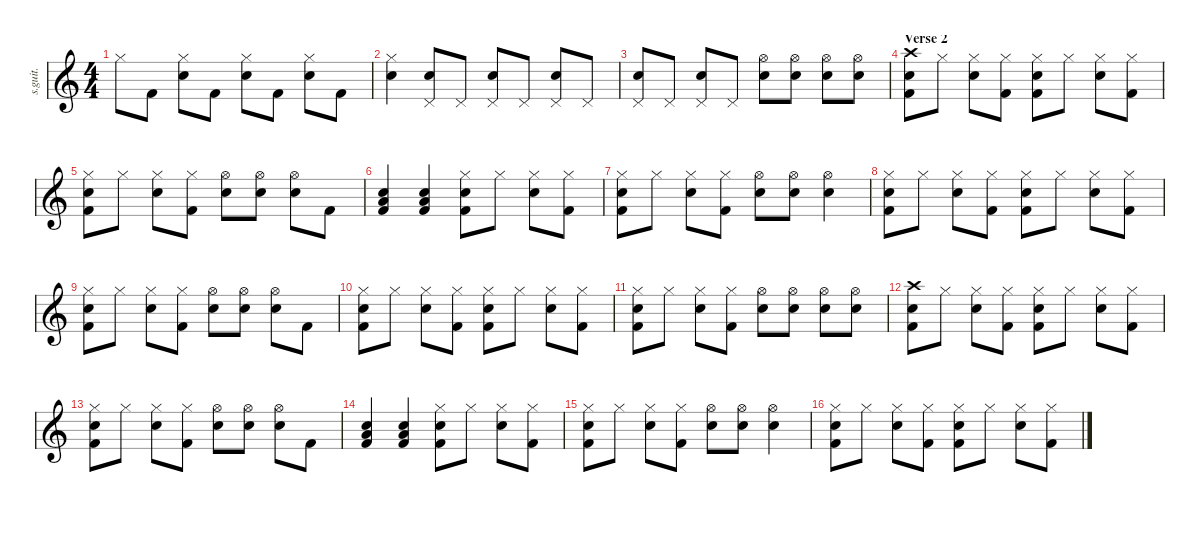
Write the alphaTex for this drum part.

\defaultSystemsLayout 4
\hideDynamics
\bracketExtendMode nobrackets
\track ("Earth" "s.guit.") {instrument percussion}
\staff {score}
\articulation defaults
\ts (4 4)
\tempo (130 hide)
\clef g2
\ks c "Hi-Hat (closed)".8{lyrics (0 "") lyrics (1 "") lyrics (2 "") lyrics (3 "") lyrics (4 "") dy f} "Kick (hit) 2".8{lyrics (0 "") lyrics (1 "") lyrics (2 "") lyrics (3 "") lyrics (4 "")}
("Hi-Hat (closed)" "Snare (hit) 2").8{lyrics (0 "") lyrics (1 "") lyrics (2 "") lyrics (3 "") lyrics (4 "")} "Kick (hit) 2".8{lyrics (0 "") lyrics (1 "") lyrics (2 "") lyrics (3 "") lyrics (4 "")} ("Hi-Hat (closed)" "Snare (hit) 2").8{lyrics (0 "") lyrics (1 "") lyrics (2 "") lyrics (3 "") lyrics (4 "")} "Kick (hit) 2".8{lyrics (0 "") lyrics (1 "") lyrics (2 "") lyrics (3 "") lyrics (4 "")} ("Hi-Hat (closed)" "Snare (hit) 2").8{lyrics (0 "") lyrics (1 "") lyrics (2 "") lyrics (3 "") lyrics (4 "")} "Kick (hit) 2".8{lyrics (0 "") lyrics (1 "") lyrics (2 "") lyrics (3 "") lyrics (4 "")} |
("Hi-Hat (closed)" "Snare (hit) 2").4{lyrics (0 "") lyrics (1 "") lyrics (2 "") lyrics (3 "") lyrics (4 "")} ("Snare (hit) 2" "Pedal Hi-Hat (hit)").8{lyrics (0 "") lyrics (1 "") lyrics (2 "") lyrics (3 "") lyrics (4 "")} "Pedal Hi-Hat (hit)".8{lyrics (0 "") lyrics (1 "") lyrics (2 "") lyrics (3 "") lyrics (4 "")} ("Snare (hit) 2" "Pedal Hi-Hat (hit)").8{lyrics (0 "") lyrics (1 "") lyrics (2 "") lyrics (3 "") lyrics (4 "")} "Pedal Hi-Hat (hit)".8{lyrics (0 "") lyrics (1 "") lyrics (2 "") lyrics (3 "") lyrics (4 "")} ("Snare (hit) 2" "Pedal Hi-Hat (hit)").8{lyrics (0 "") lyrics (1 "") lyrics (2 "") lyrics (3 "") lyrics (4 "")} "Pedal Hi-Hat (hit)".8{lyrics (0 "") lyrics (1 "") lyrics (2 "") lyrics (3 "") lyrics (4 "")} |
("Snare (hit) 2" "Pedal Hi-Hat (hit)").8{lyrics (0 "") lyrics (1 "") lyrics (2 "") lyrics (3 "") lyrics (4 "")} "Pedal Hi-Hat (hit)".8{lyrics (0 "") lyrics (1 "") lyrics (2 "") lyrics (3 "") lyrics (4 "")} ("Snare (hit) 2" "Pedal Hi-Hat (hit)").8{lyrics (0 "") lyrics (1 "") lyrics (2 "") lyrics (3 "") lyrics (4 "")} "Pedal Hi-Hat (hit)".8{lyrics (0 "") lyrics (1 "") lyrics (2 "") lyrics (3 "") lyrics (4 "")} ("Hi-Hat (open)" "Snare (hit) 2").8{lyrics (0 "") lyrics (1 "") lyrics (2 "") lyrics (3 "") lyrics (4 "")} ("Hi-Hat (open)" "Snare (hit) 2").8{lyrics (0 "") lyrics (1 "") lyrics (2 "") lyrics (3 "") lyrics (4 "")} ("Hi-Hat (open)" "Snare (hit) 2").8{lyrics (0 "") lyrics (1 "") lyrics (2 "") lyrics (3 "") lyrics (4 "")} ("Hi-Hat (open)" "Snare (hit) 2").8{lyrics (0 "") lyrics (1 "") lyrics (2 "") lyrics (3 "") lyrics (4 "")} |
\section ("" "Verse 2")
("Crash high (hit)" "Snare (hit) 2" "Kick (hit) 2").8{lyrics (0 "") lyrics (1 "") lyrics (2 "") lyrics (3 "") lyrics (4 "")} "Hi-Hat (closed)".8{lyrics (0 "") lyrics (1 "") lyrics (2 "") lyrics (3 "") lyrics (4 "")} ("Hi-Hat (closed)" "Snare (hit) 2").8{lyrics (0 "") lyrics (1 "") lyrics (2 "") lyrics (3 "") lyrics (4 "")} ("Hi-Hat (closed)" "Kick (hit) 2").8{lyrics (0 "") lyrics (1 "") lyrics (2 "") lyrics (3 "") lyrics (4 "")} ("Hi-Hat (closed)" "Snare (hit) 2" "Kick (hit) 2").8{lyrics (0 "") lyrics (1 "") lyrics (2 "") lyrics (3 "") lyrics (4 "")} "Hi-Hat (closed)".8{lyrics (0 "") lyrics (1 "") lyrics (2 "") lyrics (3 "") lyrics (4 "")} ("Hi-Hat (closed)" "Snare (hit) 2").8{lyrics (0 "") lyrics (1 "") lyrics (2 "") lyrics (3 "") lyrics (4 "")} ("Hi-Hat (closed)" "Kick (hit) 2").8{lyrics (0 "") lyrics (1 "") lyrics (2 "") lyrics (3 "") lyrics (4 "")} |
("Hi-Hat (closed)" "Snare (hit) 2" "Kick (hit) 2").8{lyrics (0 "") lyrics (1 "") lyrics (2 "") lyrics (3 "") lyrics (4 "")} "Hi-Hat (closed)".8{lyrics (0 "") lyrics (1 "") lyrics (2 "") lyrics (3 "") lyrics (4 "")} ("Hi-Hat (closed)" "Snare (hit) 2").8{lyrics (0 "") lyrics (1 "") lyrics (2 "") lyrics (3 "") lyrics (4 "")} ("Hi-Hat (closed)" "Kick (hit) 2").8{lyrics (0 "") lyrics (1 "") lyrics (2 "") lyrics (3 "") lyrics (4 "")} ("Hi-Hat (open)" "Snare (hit) 2").8{lyrics (0 "") lyrics (1 "") lyrics (2 "") lyrics (3 "") lyrics (4 "")} ("Hi-Hat (open)" "Snare (hit) 2").8{lyrics (0 "") lyrics (1 "") lyrics (2 "") lyrics (3 "") lyrics (4 "")} ("Hi-Hat (open)" "Snare (hit) 2").8{lyrics (0 "") lyrics (1 "") lyrics (2 "") lyrics (3 "") lyrics (4 "")} "Kick (hit) 2".8{lyrics (0 "") lyrics (1 "") lyrics (2 "") lyrics (3 "") lyrics (4 "")} |
("Snare (hit) 2" "Low Tom (hit)" "Kick (hit) 2").4{lyrics (0 "") lyrics (1 "") lyrics (2 "") lyrics (3 "") lyrics (4 "")} ("Snare (hit) 2" "Low Tom (hit)" "Kick (hit) 2").4{lyrics (0 "") lyrics (1 "") lyrics (2 "") lyrics (3 "") lyrics (4 "")} ("Hi-Hat (closed)" "Snare (hit) 2" "Kick (hit) 2").8{lyrics (0 "") lyrics (1 "") lyrics (2 "") lyrics (3 "") lyrics (4 "")} "Hi-Hat (closed)".8{lyrics (0 "") lyrics (1 "") lyrics (2 "") lyrics (3 "") lyrics (4 "")} ("Hi-Hat (closed)" "Snare (hit) 2").8{lyrics (0 "") lyrics (1 "") lyrics (2 "") lyrics (3 "") lyrics (4 "")} ("Hi-Hat (closed)" "Kick (hit) 2").8{lyrics (0 "") lyrics (1 "") lyrics (2 "") lyrics (3 "") lyrics (4 "")} |
("Hi-Hat (closed)" "Snare (hit) 2" "Kick (hit) 2").8{lyrics (0 "") lyrics (1 "") lyrics (2 "") lyrics (3 "") lyrics (4 "")} "Hi-Hat (closed)".8{lyrics (0 "") lyrics (1 "") lyrics (2 "") lyrics (3 "") lyrics (4 "")} ("Hi-Hat (closed)" "Snare (hit) 2").8{lyrics (0 "") lyrics (1 "") lyrics (2 "") lyrics (3 "") lyrics (4 "")} ("Hi-Hat (closed)" "Kick (hit) 2").8{lyrics (0 "") lyrics (1 "") lyrics (2 "") lyrics (3 "") lyrics (4 "")} ("Hi-Hat (open)" "Snare (hit) 2").8{lyrics (0 "") lyrics (1 "") lyrics (2 "") lyrics (3 "") lyrics (4 "")} ("Hi-Hat (open)" "Snare (hit) 2").8{lyrics (0 "") lyrics (1 "") lyrics (2 "") lyrics (3 "") lyrics (4 "")} ("Hi-Hat (open)" "Snare (hit) 2").4{lyrics (0 "") lyrics (1 "") lyrics (2 "") lyrics (3 "") lyrics (4 "")} |
("Hi-Hat (closed)" "Snare (hit) 2" "Kick (hit) 2").8{lyrics (0 "") lyrics (1 "") lyrics (2 "") lyrics (3 "") lyrics (4 "")} "Hi-Hat (closed)".8{lyrics (0 "") lyrics (1 "") lyrics (2 "") lyrics (3 "") lyrics (4 "")} ("Hi-Hat (closed)" "Snare (hit) 2").8{lyrics (0 "") lyrics (1 "") lyrics (2 "") lyrics (3 "") lyrics (4 "")} ("Hi-Hat (closed)" "Kick (hit) 2").8{lyrics (0 "") lyrics (1 "") lyrics (2 "") lyrics (3 "") lyrics (4 "")} ("Hi-Hat (closed)" "Snare (hit) 2" "Kick (hit) 2").8{lyrics (0 "") lyrics (1 "") lyrics (2 "") lyrics (3 "") lyrics (4 "")} "Hi-Hat (closed)".8{lyrics (0 "") lyrics (1 "") lyrics (2 "") lyrics (3 "") lyrics (4 "")} ("Hi-Hat (closed)" "Snare (hit) 2").8{lyrics (0 "") lyrics (1 "") lyrics (2 "") lyrics (3 "") lyrics (4 "")} ("Hi-Hat (closed)" "Kick (hit) 2").8{lyrics (0 "") lyrics (1 "") lyrics (2 "") lyrics (3 "") lyrics (4 "")} |
("Hi-Hat (closed)" "Snare (hit) 2" "Kick (hit) 2").8{lyrics (0 "") lyrics (1 "") lyrics (2 "") lyrics (3 "") lyrics (4 "")} "Hi-Hat (closed)".8{lyrics (0 "") lyrics (1 "") lyrics (2 "") lyrics (3 "") lyrics (4 "")} ("Hi-Hat (closed)" "Snare (hit) 2").8{lyrics (0 "") lyrics (1 "") lyrics (2 "") lyrics (3 "") lyrics (4 "")} ("Hi-Hat (closed)" "Kick (hit) 2").8{lyrics (0 "") lyrics (1 "") lyrics (2 "") lyrics (3 "") lyrics (4 "")} ("Hi-Hat (open)" "Snare (hit) 2").8{lyrics (0 "") lyrics (1 "") lyrics (2 "") lyrics (3 "") lyrics (4 "")} ("Hi-Hat (open)" "Snare (hit) 2").8{lyrics (0 "") lyrics (1 "") lyrics (2 "") lyrics (3 "") lyrics (4 "")} ("Hi-Hat (open)" "Snare (hit) 2").8{lyrics (0 "") lyrics (1 "") lyrics (2 "") lyrics (3 "") lyrics (4 "")} "Kick (hit) 2".8{lyrics (0 "") lyrics (1 "") lyrics (2 "") lyrics (3 "") lyrics (4 "")} |
("Hi-Hat (closed)" "Snare (hit) 2" "Kick (hit) 2").8{lyrics (0 "") lyrics (1 "") lyrics (2 "") lyrics (3 "") lyrics (4 "")} "Hi-Hat (closed)".8{lyrics (0 "") lyrics (1 "") lyrics (2 "") lyrics (3 "") lyrics (4 "")} ("Hi-Hat (closed)" "Snare (hit) 2").8{lyrics (0 "") lyrics (1 "") lyrics (2 "") lyrics (3 "") lyrics (4 "")} ("Hi-Hat (closed)" "Kick (hit) 2").8{lyrics (0 "") lyrics (1 "") lyrics (2 "") lyrics (3 "") lyrics (4 "")} ("Hi-Hat (closed)" "Snare (hit) 2" "Kick (hit) 2").8{lyrics (0 "") lyrics (1 "") lyrics (2 "") lyrics (3 "") lyrics (4 "")} "Hi-Hat (closed)".8{lyrics (0 "") lyrics (1 "") lyrics (2 "") lyrics (3 "") lyrics (4 "")} ("Hi-Hat (closed)" "Snare (hit) 2").8{lyrics (0 "") lyrics (1 "") lyrics (2 "") lyrics (3 "") lyrics (4 "")} ("Hi-Hat (closed)" "Kick (hit) 2").8{lyrics (0 "") lyrics (1 "") lyrics (2 "") lyrics (3 "") lyrics (4 "")} |
("Hi-Hat (closed)" "Snare (hit) 2" "Kick (hit) 2").8{lyrics (0 "") lyrics (1 "") lyrics (2 "") lyrics (3 "") lyrics (4 "")} "Hi-Hat (closed)".8{lyrics (0 "") lyrics (1 "") lyrics (2 "") lyrics (3 "") lyrics (4 "")} ("Hi-Hat (closed)" "Snare (hit) 2").8{lyrics (0 "") lyrics (1 "") lyrics (2 "") lyrics (3 "") lyrics (4 "")} ("Hi-Hat (closed)" "Kick (hit) 2").8{lyrics (0 "") lyrics (1 "") lyrics (2 "") lyrics (3 "") lyrics (4 "")} ("Hi-Hat (open)" "Snare (hit) 2").8{lyrics (0 "") lyrics (1 "") lyrics (2 "") lyrics (3 "") lyrics (4 "")} ("Hi-Hat (open)" "Snare (hit) 2").8{lyrics (0 "") lyrics (1 "") lyrics (2 "") lyrics (3 "") lyrics (4 "")} ("Hi-Hat (open)" "Snare (hit) 2").8{lyrics (0 "") lyrics (1 "") lyrics (2 "") lyrics (3 "") lyrics (4 "")} ("Hi-Hat (open)" "Snare (hit) 2").8{lyrics (0 "") lyrics (1 "") lyrics (2 "") lyrics (3 "") lyrics (4 "")} |
("Crash high (hit)" "Snare (hit) 2" "Kick (hit) 2").8{lyrics (0 "") lyrics (1 "") lyrics (2 "") lyrics (3 "") lyrics (4 "")} "Hi-Hat (closed)".8{lyrics (0 "") lyrics (1 "") lyrics (2 "") lyrics (3 "") lyrics (4 "")} ("Hi-Hat (closed)" "Snare (hit) 2").8{lyrics (0 "") lyrics (1 "") lyrics (2 "") lyrics (3 "") lyrics (4 "")} ("Hi-Hat (closed)" "Kick (hit) 2").8{lyrics (0 "") lyrics (1 "") lyrics (2 "") lyrics (3 "") lyrics (4 "")} ("Hi-Hat (closed)" "Snare (hit) 2" "Kick (hit) 2").8{lyrics (0 "") lyrics (1 "") lyrics (2 "") lyrics (3 "") lyrics (4 "")} "Hi-Hat (closed)".8{lyrics (0 "") lyrics (1 "") lyrics (2 "") lyrics (3 "") lyrics (4 "")} ("Hi-Hat (closed)" "Snare (hit) 2").8{lyrics (0 "") lyrics (1 "") lyrics (2 "") lyrics (3 "") lyrics (4 "")} ("Hi-Hat (closed)" "Kick (hit) 2").8{lyrics (0 "") lyrics (1 "") lyrics (2 "") lyrics (3 "") lyrics (4 "")} |
("Hi-Hat (closed)" "Snare (hit) 2" "Kick (hit) 2").8{lyrics (0 "") lyrics (1 "") lyrics (2 "") lyrics (3 "") lyrics (4 "")} "Hi-Hat (closed)".8{lyrics (0 "") lyrics (1 "") lyrics (2 "") lyrics (3 "") lyrics (4 "")} ("Hi-Hat (closed)" "Snare (hit) 2").8{lyrics (0 "") lyrics (1 "") lyrics (2 "") lyrics (3 "") lyrics (4 "")} ("Hi-Hat (closed)" "Kick (hit) 2").8{lyrics (0 "") lyrics (1 "") lyrics (2 "") lyrics (3 "") lyrics (4 "")} ("Hi-Hat (open)" "Snare (hit) 2").8{lyrics (0 "") lyrics (1 "") lyrics (2 "") lyrics (3 "") lyrics (4 "")} ("Hi-Hat (open)" "Snare (hit) 2").8{lyrics (0 "") lyrics (1 "") lyrics (2 "") lyrics (3 "") lyrics (4 "")} ("Hi-Hat (open)" "Snare (hit) 2").8{lyrics (0 "") lyrics (1 "") lyrics (2 "") lyrics (3 "") lyrics (4 "")} "Kick (hit) 2".8{lyrics (0 "") lyrics (1 "") lyrics (2 "") lyrics (3 "") lyrics (4 "")} |
("Snare (hit) 2" "Low Tom (hit)" "Kick (hit) 2").4{lyrics (0 "") lyrics (1 "") lyrics (2 "") lyrics (3 "") lyrics (4 "")} ("Snare (hit) 2" "Low Tom (hit)" "Kick (hit) 2").4{lyrics (0 "") lyrics (1 "") lyrics (2 "") lyrics (3 "") lyrics (4 "")} ("Hi-Hat (closed)" "Snare (hit) 2" "Kick (hit) 2").8{lyrics (0 "") lyrics (1 "") lyrics (2 "") lyrics (3 "") lyrics (4 "")} "Hi-Hat (closed)".8{lyrics (0 "") lyrics (1 "") lyrics (2 "") lyrics (3 "") lyrics (4 "")} ("Hi-Hat (closed)" "Snare (hit) 2").8{lyrics (0 "") lyrics (1 "") lyrics (2 "") lyrics (3 "") lyrics (4 "")} ("Hi-Hat (closed)" "Kick (hit) 2").8{lyrics (0 "") lyrics (1 "") lyrics (2 "") lyrics (3 "") lyrics (4 "")} |
("Hi-Hat (closed)" "Snare (hit) 2" "Kick (hit) 2").8{lyrics (0 "") lyrics (1 "") lyrics (2 "") lyrics (3 "") lyrics (4 "")} "Hi-Hat (closed)".8{lyrics (0 "") lyrics (1 "") lyrics (2 "") lyrics (3 "") lyrics (4 "")} ("Hi-Hat (closed)" "Snare (hit) 2").8{lyrics (0 "") lyrics (1 "") lyrics (2 "") lyrics (3 "") lyrics (4 "")} ("Hi-Hat (closed)" "Kick (hit) 2").8{lyrics (0 "") lyrics (1 "") lyrics (2 "") lyrics (3 "") lyrics (4 "")} ("Hi-Hat (open)" "Snare (hit) 2").8{lyrics (0 "") lyrics (1 "") lyrics (2 "") lyrics (3 "") lyrics (4 "")} ("Hi-Hat (open)" "Snare (hit) 2").8{lyrics (0 "") lyrics (1 "") lyrics (2 "") lyrics (3 "") lyrics (4 "")} ("Hi-Hat (open)" "Snare (hit) 2").4{lyrics (0 "") lyrics (1 "") lyrics (2 "") lyrics (3 "") lyrics (4 "")} |
("Hi-Hat (closed)" "Snare (hit) 2" "Kick (hit) 2").8{lyrics (0 "") lyrics (1 "") lyrics (2 "") lyrics (3 "") lyrics (4 "")} "Hi-Hat (closed)".8{lyrics (0 "") lyrics (1 "") lyrics (2 "") lyrics (3 "") lyrics (4 "")} ("Hi-Hat (closed)" "Snare (hit) 2").8{lyrics (0 "") lyrics (1 "") lyrics (2 "") lyrics (3 "") lyrics (4 "")} ("Hi-Hat (closed)" "Kick (hit) 2").8{lyrics (0 "") lyrics (1 "") lyrics (2 "") lyrics (3 "") lyrics (4 "")} ("Hi-Hat (closed)" "Snare (hit) 2" "Kick (hit) 2").8{lyrics (0 "") lyrics (1 "") lyrics (2 "") lyrics (3 "") lyrics (4 "")} "Hi-Hat (closed)".8{lyrics (0 "") lyrics (1 "") lyrics (2 "") lyrics (3 "") lyrics (4 "")} ("Hi-Hat (closed)" "Snare (hit) 2").8{lyrics (0 "") lyrics (1 "") lyrics (2 "") lyrics (3 "") lyrics (4 "")} ("Hi-Hat (closed)" "Kick (hit) 2").8{lyrics (0 "") lyrics (1 "") lyrics (2 "") lyrics (3 "") lyrics (4 "")}
